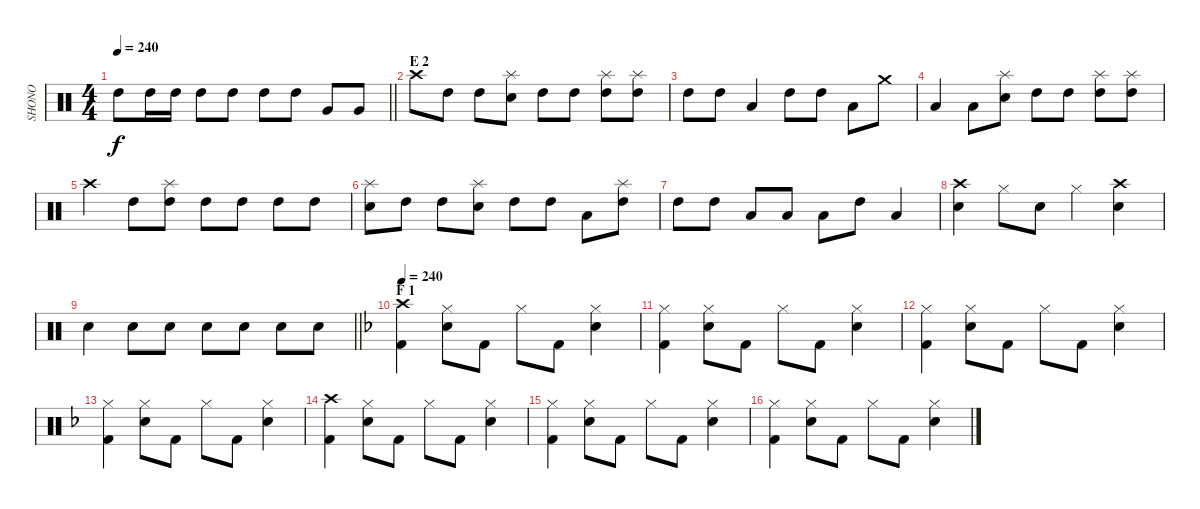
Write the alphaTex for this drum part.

\track ("SHONO" "SHONO") {instrument percussion}
\staff {score}
\articulation defaults
\ts (4 4)
\tempo 240
\clef neutral
\barLineRight lightlight
\ks c "High Tom (hit)".8{dy f} "High Tom (hit)".16 "High Tom (hit)".16 "High Tom (hit)".8 "High Tom (hit)".8 "High Tom (hit)".8 "High Tom (hit)".8 "Very Low Tom (hit)".8 "Very Low Tom (hit)".8
|
\section ("" "E 2")
"Crash high (hit)".8 "High Tom (hit)".8 "High Tom (hit)".8 ("Splash (hit)" "Snare (hit) 2").8 "High Tom (hit)".8 "High Tom (hit)".8 ("Splash (hit)" "High Tom (hit)").8 ("Splash (hit)" "High Tom (hit)").8 |
"High Tom (hit)".8 "High Tom (hit)".8 "Low Tom (hit)".4 "High Tom (hit)".8 "High Tom (hit)".8 "Low Floor Tom (hit)".8 "Crash medium (hit)".8 |
"Low Floor Tom (hit)".4 "Low Floor Tom (hit)".8 ("Splash (hit)" "Snare (hit) 2").8 "High Tom (hit)".8 "High Tom (hit)".8 ("Splash (hit)" "High Tom (hit)").8 ("Splash (hit)" "High Tom (hit)").8 |
"Crash high (hit)".4 "High Tom (hit)".8 ("Splash (hit)" "High Tom (hit)").8 "High Tom (hit)".8 "High Tom (hit)".8 "High Tom (hit)".8 "High Tom (hit)".8 |
("Splash (hit)" "Snare (hit) 2").8 "High Tom (hit)".8 "High Tom (hit)".8 ("Splash (hit)" "Snare (hit) 2").8 "High Tom (hit)".8 "High Tom (hit)".8 "Low Floor Tom (hit)".8 ("Splash (hit)" "High Tom (hit)").8 |
"High Tom (hit)".8 "High Tom (hit)".8 "Low Tom (hit)".8 "Low Tom (hit)".8 "Low Tom (hit)".8 "High Tom (hit)".8 "Low Tom (hit)".4 |
("Crash high (hit)" "Snare (hit) 2").4 "Hi-Hat (closed)".8 "Snare (hit) 2".8 "Hi-Hat (closed)".4 ("Crash high (hit)" "Snare (hit) 2").4 |
\barLineRight lightlight "Snare (hit) 2".4 "Snare (hit) 2".8 "Snare (hit) 2".8 "Snare (hit) 2".8 "Snare (hit) 2".8 "Snare (hit) 2".8 "Snare (hit) 2".8
|
\section ("" "F 1")
\tempo 240
\ks f
("Crash high (hit)" "Kick (hit) 2").4 ("Hi-Hat (closed)" "Snare (hit) 2").8 "Kick (hit) 2".8 "Hi-Hat (closed)".8 "Kick (hit) 2".8 ("Hi-Hat (closed)" "Snare (hit) 2").4 |
("Hi-Hat (closed)" "Kick (hit) 2").4 ("Hi-Hat (closed)" "Snare (hit) 2").8 "Kick (hit) 2".8 "Hi-Hat (closed)".8 "Kick (hit) 2".8 ("Hi-Hat (closed)" "Snare (hit) 2").4 |
("Hi-Hat (closed)" "Kick (hit) 2").4 ("Hi-Hat (closed)" "Snare (hit) 2").8 "Kick (hit) 2".8 "Hi-Hat (closed)".8 "Kick (hit) 2".8 ("Hi-Hat (closed)" "Snare (hit) 2").4 |
("Hi-Hat (closed)" "Kick (hit) 2").4 ("Hi-Hat (closed)" "Snare (hit) 2").8 "Kick (hit) 2".8 "Hi-Hat (closed)".8 "Kick (hit) 2".8 ("Hi-Hat (closed)" "Snare (hit) 2").4 |
("Crash high (hit)" "Kick (hit) 2").4 ("Hi-Hat (closed)" "Snare (hit) 2").8 "Kick (hit) 2".8 "Hi-Hat (closed)".8 "Kick (hit) 2".8 ("Hi-Hat (closed)" "Snare (hit) 2").4 |
("Hi-Hat (closed)" "Kick (hit) 2").4 ("Hi-Hat (closed)" "Snare (hit) 2").8 "Kick (hit) 2".8 "Hi-Hat (closed)".8 "Kick (hit) 2".8 ("Hi-Hat (closed)" "Snare (hit) 2").4 |
("Hi-Hat (closed)" "Kick (hit) 2").4 ("Hi-Hat (closed)" "Snare (hit) 2").8 "Kick (hit) 2".8 "Hi-Hat (closed)".8 "Kick (hit) 2".8 ("Hi-Hat (closed)" "Snare (hit) 2").4
